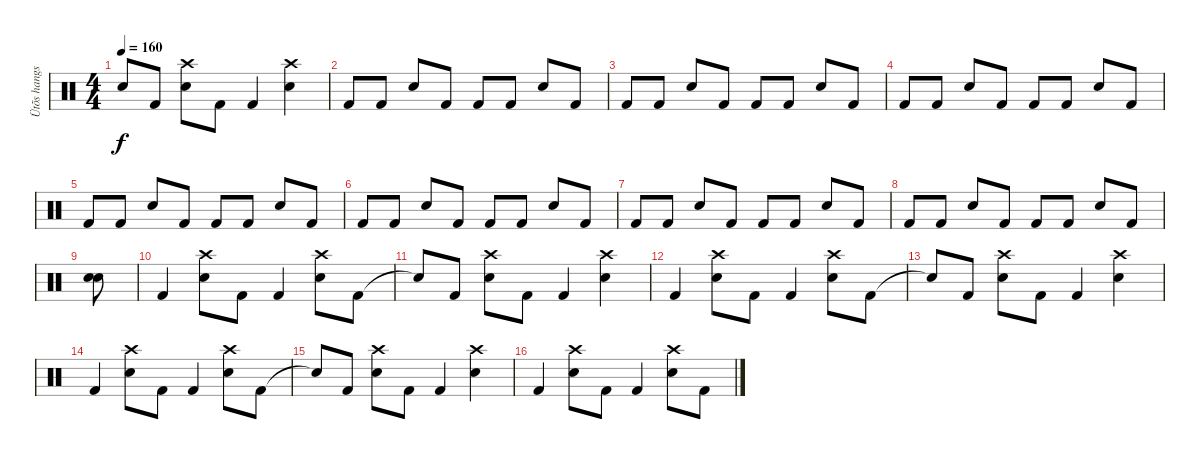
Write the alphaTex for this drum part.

\track ("Ütõs hangszer" "Ütõs hangs") {instrument percussion}
\staff {score}
\articulation defaults
\ts (4 4)
\tempo 160
\clef neutral
\ks c "Snare (hit)"{t}.8{dy f} "Kick (hit) 2".8
("Crash high (hit)" "Electric Snare (hit)").8 "Kick (hit) 2".8 "Kick (hit) 2".4 ("Crash high (hit)" "Electric Snare (hit)").4 |
"Kick (hit) 2".8 "Kick (hit) 2".8 "Electric Snare (hit)".8 "Kick (hit) 2".8 "Kick (hit) 2".8 "Kick (hit) 2".8 "Electric Snare (hit)".8 "Kick (hit) 2".8 |
"Kick (hit) 2".8 "Kick (hit) 2".8 "Electric Snare (hit)".8 "Kick (hit) 2".8 "Kick (hit) 2".8 "Kick (hit) 2".8 "Electric Snare (hit)".8 "Kick (hit) 2".8 |
"Kick (hit) 2".8 "Kick (hit) 2".8 "Electric Snare (hit)".8 "Kick (hit) 2".8 "Kick (hit) 2".8 "Kick (hit) 2".8 "Electric Snare (hit)".8 "Kick (hit) 2".8 |
"Kick (hit) 2".8 "Kick (hit) 2".8 "Electric Snare (hit)".8 "Kick (hit) 2".8 "Kick (hit) 2".8 "Kick (hit) 2".8 "Electric Snare (hit)".8 "Kick (hit) 2".8 |
"Kick (hit) 2".8 "Kick (hit) 2".8 "Electric Snare (hit)".8 "Kick (hit) 2".8 "Kick (hit) 2".8 "Kick (hit) 2".8 "Electric Snare (hit)".8 "Kick (hit) 2".8 |
"Kick (hit) 2".8 "Kick (hit) 2".8 "Electric Snare (hit)".8 "Kick (hit) 2".8 "Kick (hit) 2".8 "Kick (hit) 2".8 "Electric Snare (hit)".8 "Kick (hit) 2".8 |
"Kick (hit) 2".8 "Kick (hit) 2".8 "Electric Snare (hit)".8 "Kick (hit) 2".8 "Kick (hit) 2".8 "Kick (hit) 2".8 "Electric Snare (hit)".8 "Kick (hit) 2".8 |
("Electric Snare (hit)" "Electric Snare (hit)").8 |
"Kick (hit) 2".4 ("Crash high (hit)" "Electric Snare (hit)").8 "Kick (hit) 2".8 "Kick (hit) 2".4 ("Crash high (hit)" "Electric Snare (hit)").8 "Kick (hit) 2".8 |
"Snare (hit)"{t}.8 "Kick (hit) 2".8 ("Crash high (hit)" "Electric Snare (hit)").8 "Kick (hit) 2".8 "Kick (hit) 2".4 ("Crash high (hit)" "Electric Snare (hit)").4 |
"Kick (hit) 2".4 ("Crash high (hit)" "Electric Snare (hit)").8 "Kick (hit) 2".8 "Kick (hit) 2".4 ("Crash high (hit)" "Electric Snare (hit)").8 "Kick (hit) 2".8 |
"Snare (hit)"{t}.8 "Kick (hit) 2".8 ("Crash high (hit)" "Electric Snare (hit)").8 "Kick (hit) 2".8 "Kick (hit) 2".4 ("Crash high (hit)" "Electric Snare (hit)").4 |
"Kick (hit) 2".4 ("Crash high (hit)" "Electric Snare (hit)").8 "Kick (hit) 2".8 "Kick (hit) 2".4 ("Crash high (hit)" "Electric Snare (hit)").8 "Kick (hit) 2".8 |
"Snare (hit)"{t}.8 "Kick (hit) 2".8 ("Crash high (hit)" "Electric Snare (hit)").8 "Kick (hit) 2".8 "Kick (hit) 2".4 ("Crash high (hit)" "Electric Snare (hit)").4 |
"Kick (hit) 2".4 ("Crash high (hit)" "Electric Snare (hit)").8 "Kick (hit) 2".8 "Kick (hit) 2".4 ("Crash high (hit)" "Electric Snare (hit)").8 "Kick (hit) 2".8
